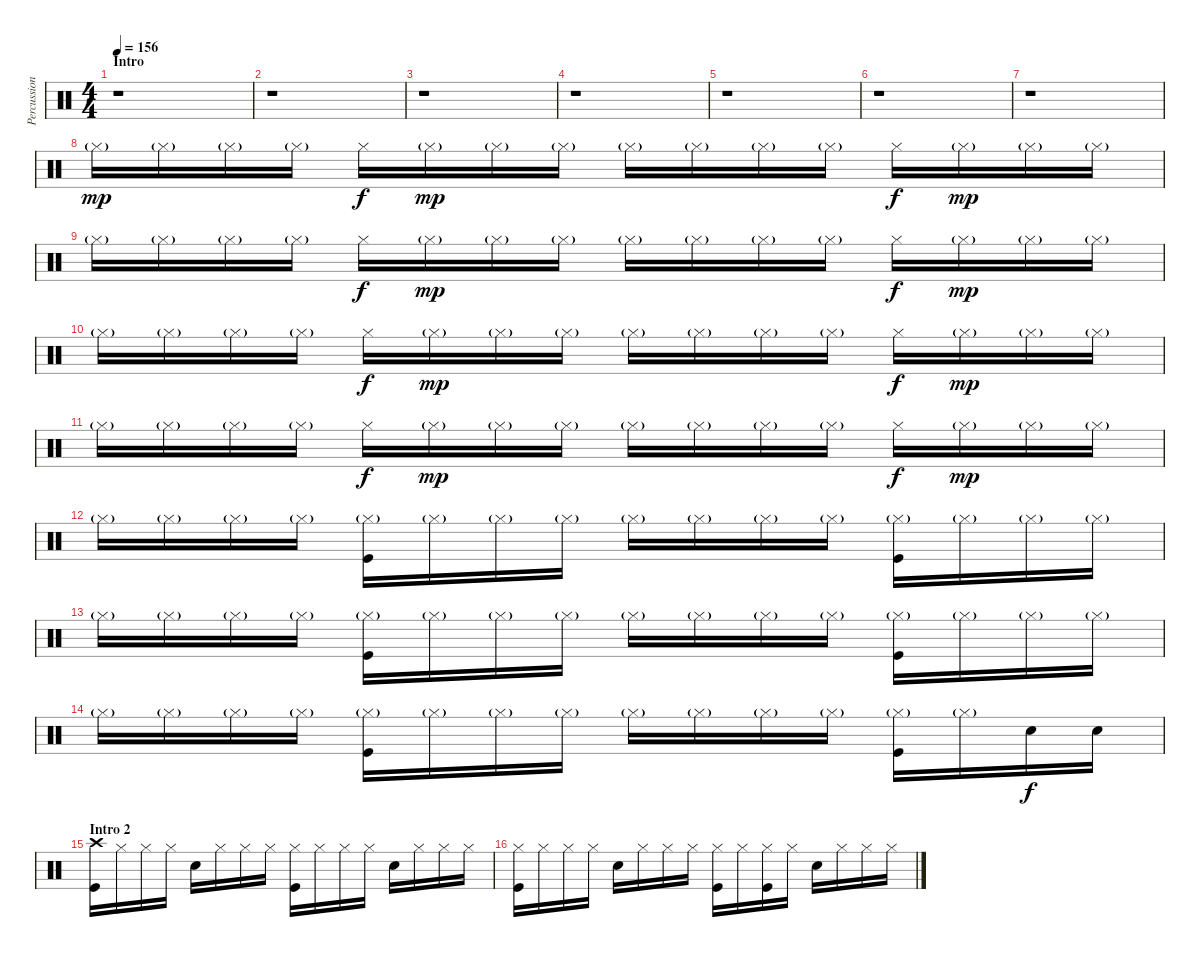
\track ("Percussion" "Percussion") {instrument percussion}
\staff {score}
\articulation defaults
\ts (4 4)
\section ("" "Intro")
\tempo 156
\clef neutral
\ks c
r.1{dy mp} |
r.1 |
r.1 |
r.1 |
r.1 |
r.1 |
r.1 |
"Hi-Hat (closed)"{g}.16 "Hi-Hat (closed)"{g}.16 "Hi-Hat (closed)"{g}.16 "Hi-Hat (closed)"{g}.16 "Hi-Hat (closed)".16{dy f} "Hi-Hat (closed)"{g}.16{dy mp} "Hi-Hat (closed)"{g}.16 "Hi-Hat (closed)"{g}.16 "Hi-Hat (closed)"{g}.16 "Hi-Hat (closed)"{g}.16 "Hi-Hat (closed)"{g}.16 "Hi-Hat (closed)"{g}.16 "Hi-Hat (closed)".16{dy f} "Hi-Hat (closed)"{g}.16{dy mp} "Hi-Hat (closed)"{g}.16 "Hi-Hat (closed)"{g}.16 |
"Hi-Hat (closed)"{g}.16 "Hi-Hat (closed)"{g}.16 "Hi-Hat (closed)"{g}.16 "Hi-Hat (closed)"{g}.16 "Hi-Hat (closed)".16{dy f} "Hi-Hat (closed)"{g}.16{dy mp} "Hi-Hat (closed)"{g}.16 "Hi-Hat (closed)"{g}.16 "Hi-Hat (closed)"{g}.16 "Hi-Hat (closed)"{g}.16 "Hi-Hat (closed)"{g}.16 "Hi-Hat (closed)"{g}.16 "Hi-Hat (closed)".16{dy f} "Hi-Hat (closed)"{g}.16{dy mp} "Hi-Hat (closed)"{g}.16 "Hi-Hat (closed)"{g}.16 |
"Hi-Hat (closed)"{g}.16 "Hi-Hat (closed)"{g}.16 "Hi-Hat (closed)"{g}.16 "Hi-Hat (closed)"{g}.16 "Hi-Hat (closed)".16{dy f} "Hi-Hat (closed)"{g}.16{dy mp} "Hi-Hat (closed)"{g}.16 "Hi-Hat (closed)"{g}.16 "Hi-Hat (closed)"{g}.16 "Hi-Hat (closed)"{g}.16 "Hi-Hat (closed)"{g}.16 "Hi-Hat (closed)"{g}.16 "Hi-Hat (closed)".16{dy f} "Hi-Hat (closed)"{g}.16{dy mp} "Hi-Hat (closed)"{g}.16 "Hi-Hat (closed)"{g}.16 |
"Hi-Hat (closed)"{g}.16 "Hi-Hat (closed)"{g}.16 "Hi-Hat (closed)"{g}.16 "Hi-Hat (closed)"{g}.16 "Hi-Hat (closed)".16{dy f} "Hi-Hat (closed)"{g}.16{dy mp} "Hi-Hat (closed)"{g}.16 "Hi-Hat (closed)"{g}.16 "Hi-Hat (closed)"{g}.16 "Hi-Hat (closed)"{g}.16 "Hi-Hat (closed)"{g}.16 "Hi-Hat (closed)"{g}.16 "Hi-Hat (closed)".16{dy f} "Hi-Hat (closed)"{g}.16{dy mp} "Hi-Hat (closed)"{g}.16 "Hi-Hat (closed)"{g}.16 |
"Hi-Hat (closed)"{g}.16 "Hi-Hat (closed)"{g}.16 "Hi-Hat (closed)"{g}.16 "Hi-Hat (closed)"{g}.16 ("Hi-Hat (closed)"{g} "Kick (hit)").16 "Hi-Hat (closed)"{g}.16 "Hi-Hat (closed)"{g}.16 "Hi-Hat (closed)"{g}.16 "Hi-Hat (closed)"{g}.16 "Hi-Hat (closed)"{g}.16 "Hi-Hat (closed)"{g}.16 "Hi-Hat (closed)"{g}.16 ("Hi-Hat (closed)"{g} "Kick (hit)").16 "Hi-Hat (closed)"{g}.16 "Hi-Hat (closed)"{g}.16 "Hi-Hat (closed)"{g}.16 |
"Hi-Hat (closed)"{g}.16 "Hi-Hat (closed)"{g}.16 "Hi-Hat (closed)"{g}.16 "Hi-Hat (closed)"{g}.16 ("Hi-Hat (closed)"{g} "Kick (hit)").16 "Hi-Hat (closed)"{g}.16 "Hi-Hat (closed)"{g}.16 "Hi-Hat (closed)"{g}.16 "Hi-Hat (closed)"{g}.16 "Hi-Hat (closed)"{g}.16 "Hi-Hat (closed)"{g}.16 "Hi-Hat (closed)"{g}.16 ("Hi-Hat (closed)"{g} "Kick (hit)").16 "Hi-Hat (closed)"{g}.16 "Hi-Hat (closed)"{g}.16 "Hi-Hat (closed)"{g}.16 |
"Hi-Hat (closed)"{g}.16 "Hi-Hat (closed)"{g}.16 "Hi-Hat (closed)"{g}.16 "Hi-Hat (closed)"{g}.16 ("Hi-Hat (closed)"{g} "Kick (hit)").16 "Hi-Hat (closed)"{g}.16 "Hi-Hat (closed)"{g}.16 "Hi-Hat (closed)"{g}.16 "Hi-Hat (closed)"{g}.16 "Hi-Hat (closed)"{g}.16 "Hi-Hat (closed)"{g}.16 "Hi-Hat (closed)"{g}.16 ("Hi-Hat (closed)"{g} "Kick (hit)").16 "Hi-Hat (closed)"{g}.16 "Snare (hit) 2".16{dy f} "Snare (hit) 2".16 |
\section ("" "Intro 2")
("Crash high (hit)" "Kick (hit)").16 "Hi-Hat (closed)".16 "Hi-Hat (closed)".16 "Hi-Hat (closed)".16 "Snare (hit) 2".16 "Hi-Hat (closed)".16 "Hi-Hat (closed)".16 "Hi-Hat (closed)".16 ("Hi-Hat (closed)" "Kick (hit)").16 "Hi-Hat (closed)".16 "Hi-Hat (closed)".16 "Hi-Hat (closed)".16 "Snare (hit) 2".16 "Hi-Hat (closed)".16 "Hi-Hat (closed)".16 "Hi-Hat (closed)".16 |
("Hi-Hat (closed)" "Kick (hit)").16 "Hi-Hat (closed)".16 "Hi-Hat (closed)".16 "Hi-Hat (closed)".16 "Snare (hit) 2".16 "Hi-Hat (closed)".16 "Hi-Hat (closed)".16 "Hi-Hat (closed)".16 ("Hi-Hat (closed)" "Kick (hit)").16 "Hi-Hat (closed)".16 ("Hi-Hat (closed)" "Kick (hit)").16 "Hi-Hat (closed)".16 "Snare (hit) 2".16 "Hi-Hat (closed)".16 "Hi-Hat (closed)".16 "Hi-Hat (closed)".16
